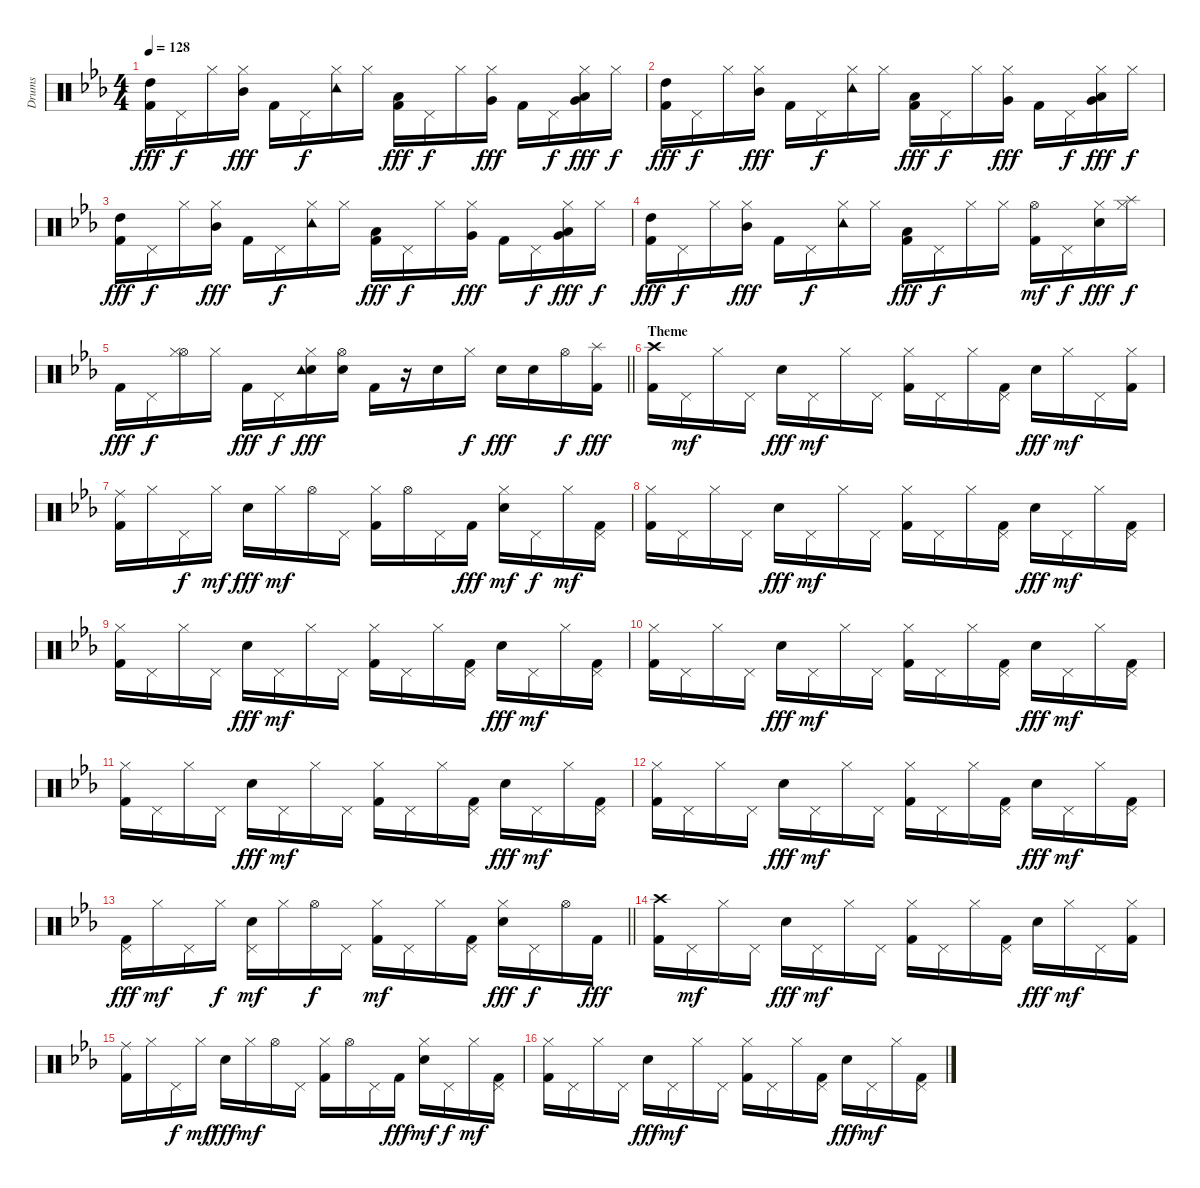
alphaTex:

\track ("Drums" "Drums") {instrument percussion}
\staff {score}
\articulation defaults
\ts (4 4)
\tempo 128
\clef neutral
\ks cminor
("High Tom (hit)" "Kick (hit) 2").16{dy fff} "Pedal Hi-Hat (hit)".16{dy f} "Hi-Hat (closed)".16 ("Mid Tom (hit)" "Hi-Hat (closed)").16{dy fff} "Kick (hit) 2".16 "Pedal Hi-Hat (hit)".16{dy f} ("Tambourine (hit)" "Hi-Hat (closed)").16 "Hi-Hat (closed)".16 ("Kick (hit) 2" "Low Tom (hit)").16{dy fff} "Pedal Hi-Hat (hit)".16{dy f} "Hi-Hat (closed)".16 ("Very Low Tom (hit)" "Hi-Hat (closed)").16{dy fff} "Kick (hit) 2".16 "Pedal Hi-Hat (hit)".16{dy f} ("Low Floor Tom (hit)" "Very Low Tom (hit)" "Hi-Hat (closed)").16{dy fff} "Hi-Hat (closed)".16{dy f} |
("High Tom (hit)" "Kick (hit) 2").16{dy fff} "Pedal Hi-Hat (hit)".16{dy f} "Hi-Hat (closed)".16 ("Mid Tom (hit)" "Hi-Hat (closed)").16{dy fff} "Kick (hit) 2".16 "Pedal Hi-Hat (hit)".16{dy f} ("Tambourine (hit)" "Hi-Hat (closed)").16 "Hi-Hat (closed)".16 ("Low Tom (hit)" "Kick (hit) 2").16{dy fff} "Pedal Hi-Hat (hit)".16{dy f} "Hi-Hat (closed)".16 ("Very Low Tom (hit)" "Hi-Hat (closed)").16{dy fff} "Kick (hit) 2".16 "Pedal Hi-Hat (hit)".16{dy f} ("Low Floor Tom (hit)" "Very Low Tom (hit)" "Hi-Hat (closed)").16{dy fff} "Hi-Hat (closed)".16{dy f} |
("High Tom (hit)" "Kick (hit) 2").16{dy fff} "Pedal Hi-Hat (hit)".16{dy f} "Hi-Hat (closed)".16 ("Mid Tom (hit)" "Hi-Hat (closed)").16{dy fff} "Kick (hit) 2".16 "Pedal Hi-Hat (hit)".16{dy f} ("Tambourine (hit)" "Hi-Hat (closed)").16 "Hi-Hat (closed)".16 ("Low Tom (hit)" "Kick (hit) 2").16{dy fff} "Pedal Hi-Hat (hit)".16{dy f} "Hi-Hat (closed)".16 ("Very Low Tom (hit)" "Hi-Hat (closed)").16{dy fff} "Kick (hit) 2".16 "Pedal Hi-Hat (hit)".16{dy f} ("Low Floor Tom (hit)" "Very Low Tom (hit)" "Hi-Hat (closed)").16{dy fff} "Hi-Hat (closed)".16{dy f} |
("High Tom (hit)" "Kick (hit) 2").16{dy fff} "Pedal Hi-Hat (hit)".16{dy f} "Hi-Hat (closed)".16 ("Mid Tom (hit)" "Hi-Hat (closed)").16{dy fff} "Kick (hit) 2".16 "Pedal Hi-Hat (hit)".16{dy f} ("Tambourine (hit)" "Hi-Hat (closed)").16 "Hi-Hat (closed)".16 ("Low Tom (hit)" "Kick (hit) 2").16{dy fff} "Pedal Hi-Hat (hit)".16{dy f} "Hi-Hat (closed)".16 "Hi-Hat (closed)".16 ("Kick (hit) 2" "Hi-Hat (open)").16{dy mf} "Pedal Hi-Hat (hit)".16{dy f} ("Electric Snare (hit)" "Hi-Hat (closed)").16{dy fff} ("Splash (hit)" "Hi-Hat (closed)").16{dy f} |
\barLineRight lightlight "Kick (hit) 2".16{dy fff} "Pedal Hi-Hat (hit)".16{dy f}
("Hi-Hat (open)" "Hi-Hat (closed)").16 "Hi-Hat (closed)".16 "Kick (hit) 2".16{dy fff} "Pedal Hi-Hat (hit)".16{dy f} ("Electric Snare (hit)" "Tambourine (hit)" "Hi-Hat (closed)").16{dy fff} ("Electric Snare (hit)" "Hi-Hat (open)").16 "Kick (hit) 2".16 r.16 "Electric Snare (hit)".16 "Hi-Hat (closed)".16{dy f} "Electric Snare (hit)".16{dy fff} "Electric Snare (hit)".16 "Hi-Hat (open)".16{dy f} ("Kick (hit) 2" "Splash (hit)").16{dy fff} |
\section ("" "Theme")
("Kick (hit) 2" "Crash high (hit)").16 "Pedal Hi-Hat (hit)".16{dy mf} "Hi-Hat (closed)".16 "Pedal Hi-Hat (hit)".16 "Electric Snare (hit)".16{dy fff} "Pedal Hi-Hat (hit)".16{dy mf} "Hi-Hat (closed)".16 "Pedal Hi-Hat (hit)".16 ("Kick (hit) 2" "Hi-Hat (closed)").16 "Pedal Hi-Hat (hit)".16 "Hi-Hat (closed)".16 ("Kick (hit) 2" "Pedal Hi-Hat (hit)").16 "Electric Snare (hit)".16{dy fff} "Hi-Hat (closed)".16{dy mf} "Pedal Hi-Hat (hit)".16 ("Kick (hit) 2" "Hi-Hat (closed)").16 |
("Kick (hit) 2" "Ride (middle)").16 "Hi-Hat (closed)".16 "Pedal Hi-Hat (hit)".16{dy f} "Hi-Hat (closed)".16{dy mf} "Electric Snare (hit)".16{dy fff} "Hi-Hat (closed)".16{dy mf} "Hi-Hat (open)".16 "Pedal Hi-Hat (hit)".16 ("Kick (hit) 2" "Hi-Hat (closed)").16 "Hi-Hat (open)".16 "Pedal Hi-Hat (hit)".16 "Kick (hit) 2".16{dy fff} ("Electric Snare (hit)" "Hi-Hat (closed)").16{dy mf} "Pedal Hi-Hat (hit)".16{dy f} "Hi-Hat (closed)".16{dy mf} ("Kick (hit) 2" "Pedal Hi-Hat (hit)").16 |
("Kick (hit) 2" "Hi-Hat (closed)").16 "Pedal Hi-Hat (hit)".16 "Hi-Hat (closed)".16 "Pedal Hi-Hat (hit)".16 "Electric Snare (hit)".16{dy fff} "Pedal Hi-Hat (hit)".16{dy mf} "Hi-Hat (closed)".16 "Pedal Hi-Hat (hit)".16 ("Kick (hit) 2" "Hi-Hat (closed)").16 "Pedal Hi-Hat (hit)".16 "Hi-Hat (closed)".16 ("Kick (hit) 2" "Pedal Hi-Hat (hit)").16 "Electric Snare (hit)".16{dy fff} "Pedal Hi-Hat (hit)".16{dy mf} "Hi-Hat (closed)".16 ("Kick (hit) 2" "Pedal Hi-Hat (hit)").16 |
("Kick (hit) 2" "Hi-Hat (closed)").16 "Pedal Hi-Hat (hit)".16 "Hi-Hat (closed)".16 "Pedal Hi-Hat (hit)".16 "Electric Snare (hit)".16{dy fff} "Pedal Hi-Hat (hit)".16{dy mf} "Hi-Hat (closed)".16 "Pedal Hi-Hat (hit)".16 ("Kick (hit) 2" "Hi-Hat (closed)").16 "Pedal Hi-Hat (hit)".16 "Hi-Hat (closed)".16 ("Kick (hit) 2" "Pedal Hi-Hat (hit)").16 "Electric Snare (hit)".16{dy fff} "Pedal Hi-Hat (hit)".16{dy mf} "Hi-Hat (closed)".16 ("Kick (hit) 2" "Pedal Hi-Hat (hit)").16 |
("Kick (hit) 2" "Hi-Hat (closed)").16 "Pedal Hi-Hat (hit)".16 "Hi-Hat (closed)".16 "Pedal Hi-Hat (hit)".16 "Electric Snare (hit)".16{dy fff} "Pedal Hi-Hat (hit)".16{dy mf} "Hi-Hat (closed)".16 "Pedal Hi-Hat (hit)".16 ("Kick (hit) 2" "Hi-Hat (closed)").16 "Pedal Hi-Hat (hit)".16 "Hi-Hat (closed)".16 ("Kick (hit) 2" "Pedal Hi-Hat (hit)").16 "Electric Snare (hit)".16{dy fff} "Pedal Hi-Hat (hit)".16{dy mf} "Hi-Hat (closed)".16 ("Kick (hit) 2" "Pedal Hi-Hat (hit)").16 |
("Kick (hit) 2" "Hi-Hat (closed)").16 "Pedal Hi-Hat (hit)".16 "Hi-Hat (closed)".16 "Pedal Hi-Hat (hit)".16 "Electric Snare (hit)".16{dy fff} "Pedal Hi-Hat (hit)".16{dy mf} "Hi-Hat (closed)".16 "Pedal Hi-Hat (hit)".16 ("Kick (hit) 2" "Hi-Hat (closed)").16 "Pedal Hi-Hat (hit)".16 "Hi-Hat (closed)".16 ("Kick (hit) 2" "Pedal Hi-Hat (hit)").16 "Electric Snare (hit)".16{dy fff} "Pedal Hi-Hat (hit)".16{dy mf} "Hi-Hat (closed)".16 ("Kick (hit) 2" "Pedal Hi-Hat (hit)").16 |
("Kick (hit) 2" "Hi-Hat (closed)").16 "Pedal Hi-Hat (hit)".16 "Hi-Hat (closed)".16 "Pedal Hi-Hat (hit)".16 "Electric Snare (hit)".16{dy fff} "Pedal Hi-Hat (hit)".16{dy mf} "Hi-Hat (closed)".16 "Pedal Hi-Hat (hit)".16 ("Kick (hit) 2" "Hi-Hat (closed)").16 "Pedal Hi-Hat (hit)".16 "Hi-Hat (closed)".16 ("Kick (hit) 2" "Pedal Hi-Hat (hit)").16 "Electric Snare (hit)".16{dy fff} "Pedal Hi-Hat (hit)".16{dy mf} "Hi-Hat (closed)".16 ("Kick (hit) 2" "Pedal Hi-Hat (hit)").16 |
\barLineRight lightlight
("Kick (hit) 2" "Pedal Hi-Hat (hit)").16{dy fff} "Hi-Hat (closed)".16{dy mf} "Pedal Hi-Hat (hit)".16 "Hi-Hat (closed)".16{dy f} ("Electric Snare (hit)" "Pedal Hi-Hat (hit)").16{dy mf} "Hi-Hat (closed)".16 "Hi-Hat (open)".16{dy f} "Pedal Hi-Hat (hit)".16 ("Kick (hit) 2" "Hi-Hat (closed)").16{dy mf} "Pedal Hi-Hat (hit)".16 "Hi-Hat (closed)".16 ("Kick (hit) 2" "Pedal Hi-Hat (hit)").16 ("Electric Snare (hit)" "Hi-Hat (closed)").16{dy fff} "Pedal Hi-Hat (hit)".16{dy f} "Hi-Hat (open)".16 "Kick (hit) 2".16{dy fff} |
("Kick (hit) 2" "Crash high (hit)").16 "Pedal Hi-Hat (hit)".16{dy mf} "Hi-Hat (closed)".16 "Pedal Hi-Hat (hit)".16 "Electric Snare (hit)".16{dy fff} "Pedal Hi-Hat (hit)".16{dy mf} "Hi-Hat (closed)".16 "Pedal Hi-Hat (hit)".16 ("Kick (hit) 2" "Hi-Hat (closed)").16 "Pedal Hi-Hat (hit)".16 "Hi-Hat (closed)".16 ("Kick (hit) 2" "Pedal Hi-Hat (hit)").16 "Electric Snare (hit)".16{dy fff} "Hi-Hat (closed)".16{dy mf} "Pedal Hi-Hat (hit)".16 ("Kick (hit) 2" "Hi-Hat (closed)").16 |
("Kick (hit) 2" "Ride (middle)").16 "Hi-Hat (closed)".16 "Pedal Hi-Hat (hit)".16{dy f} "Hi-Hat (closed)".16{dy mf} "Electric Snare (hit)".16{dy fff} "Hi-Hat (closed)".16{dy mf} "Hi-Hat (open)".16 "Pedal Hi-Hat (hit)".16 ("Kick (hit) 2" "Hi-Hat (closed)").16 "Hi-Hat (open)".16 "Pedal Hi-Hat (hit)".16 "Kick (hit) 2".16{dy fff} ("Electric Snare (hit)" "Hi-Hat (closed)").16{dy mf} "Pedal Hi-Hat (hit)".16{dy f} "Hi-Hat (closed)".16{dy mf} ("Kick (hit) 2" "Pedal Hi-Hat (hit)").16 |
("Kick (hit) 2" "Hi-Hat (closed)").16 "Pedal Hi-Hat (hit)".16 "Hi-Hat (closed)".16 "Pedal Hi-Hat (hit)".16 "Electric Snare (hit)".16{dy fff} "Pedal Hi-Hat (hit)".16{dy mf} "Hi-Hat (closed)".16 "Pedal Hi-Hat (hit)".16 ("Kick (hit) 2" "Hi-Hat (closed)").16 "Pedal Hi-Hat (hit)".16 "Hi-Hat (closed)".16 ("Kick (hit) 2" "Pedal Hi-Hat (hit)").16 "Electric Snare (hit)".16{dy fff} "Pedal Hi-Hat (hit)".16{dy mf} "Hi-Hat (closed)".16 ("Kick (hit) 2" "Pedal Hi-Hat (hit)").16
